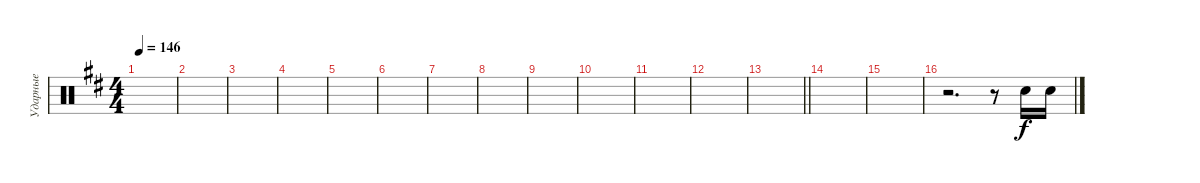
\track ("Ударные" "Ударные") {instrument percussion}
\staff {score}
\articulation defaults
\ts (4 4)
\tempo 146
\clef neutral
\ks bminor
|
|
|
|
|
|
|
|
|
|
|
|
\barLineRight lightlight
|
\section ("" "")
|
|
r.2{d} r.8 "Electric Snare (hit)".16 "Electric Snare (hit)".16
